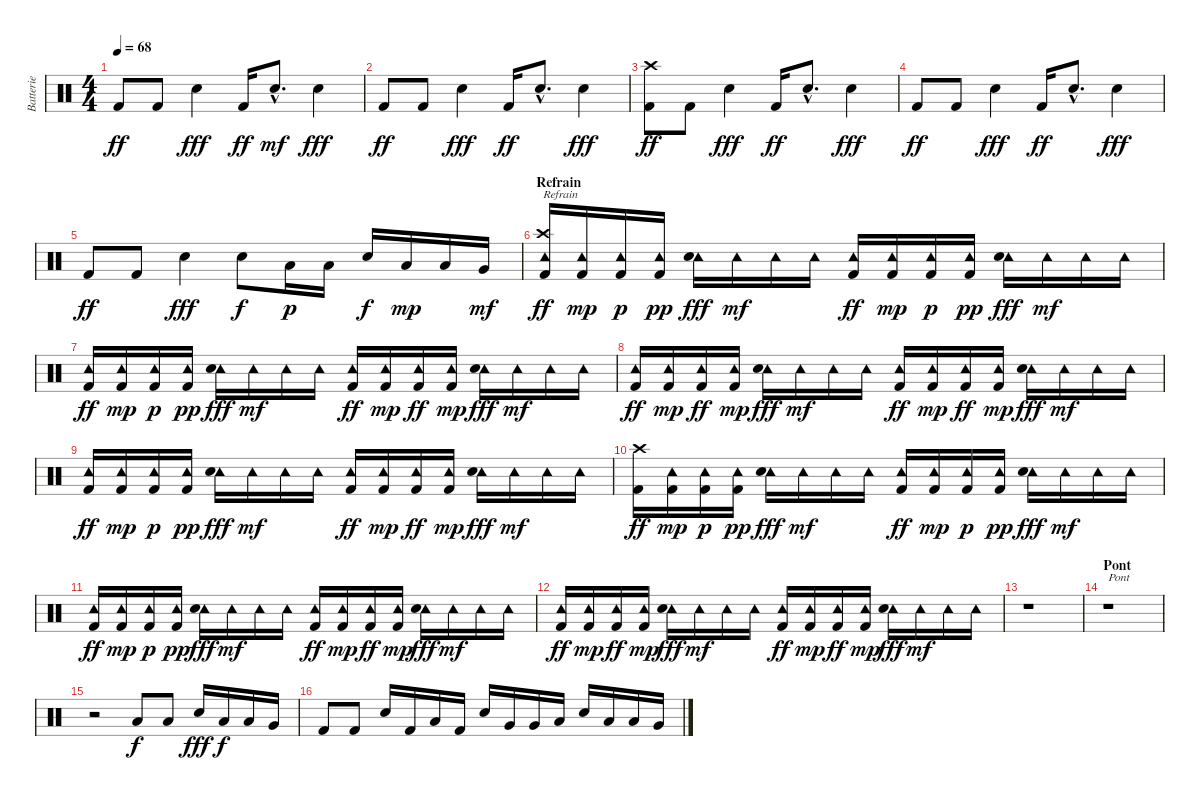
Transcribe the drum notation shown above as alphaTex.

\track ("Batterie" "Batterie") {instrument percussion}
\staff {score}
\articulation defaults
\ts (4 4)
\tempo 68
\clef neutral
\ks c "Kick (hit) 2".8{dy ff} "Kick (hit) 2".8 "Electric Snare (hit)".4{dy fff} "Kick (hit) 2".16{dy ff} "Electric Snare (hit)"{hac}.8{d dy mf} "Electric Snare (hit)".4{dy fff}
|
\section ("" "")
"Kick (hit) 2".8{txt "" dy ff} "Kick (hit) 2".8 "Electric Snare (hit)".4{dy fff} "Kick (hit) 2".16{dy ff} "Electric Snare (hit)"{hac}.8{d} "Electric Snare (hit)".4{dy fff} |
("Crash high (hit)" "Kick (hit) 2").8{dy ff} "Kick (hit) 2".8 "Electric Snare (hit)".4{dy fff} "Kick (hit) 2".16{dy ff} "Electric Snare (hit)"{hac}.8{d} "Electric Snare (hit)".4{dy fff} |
"Kick (hit) 2".8{dy ff} "Kick (hit) 2".8 "Electric Snare (hit)".4{dy fff} "Kick (hit) 2".16{dy ff} "Electric Snare (hit)"{hac}.8{d} "Electric Snare (hit)".4{dy fff} |
"Kick (hit) 2".8{dy ff} "Kick (hit) 2".8 "Electric Snare (hit)".4{dy fff} "Electric Snare (hit)".8{dy f} "Low Tom (hit)".16{dy p} "Low Tom (hit)".16 "Electric Snare (hit)".16{dy f} "Low Tom (hit)".16{dy mp} "Low Tom (hit)".16 "Very Low Tom (hit)".16{dy mf} |
\section ("" "Refrain")
("Crash high (hit)" "Tambourine (hit)" "Kick (hit) 2").16{txt "Refrain" dy ff} ("Tambourine (hit)" "Kick (hit) 2").16{dy mp} ("Tambourine (hit)" "Kick (hit) 2").16{dy p} ("Tambourine (hit)" "Kick (hit) 2").16{dy pp} ("Tambourine (hit)" "Electric Snare (hit)").16{dy fff} "Tambourine (hit)".16{dy mf} "Tambourine (hit)".16 "Tambourine (hit)".16 ("Tambourine (hit)" "Kick (hit) 2").16{dy ff} ("Tambourine (hit)" "Kick (hit) 2").16{dy mp} ("Tambourine (hit)" "Kick (hit) 2").16{dy p} ("Tambourine (hit)" "Kick (hit) 2").16{dy pp} ("Tambourine (hit)" "Electric Snare (hit)").16{dy fff} "Tambourine (hit)".16{dy mf} "Tambourine (hit)".16 "Tambourine (hit)".16 |
("Tambourine (hit)" "Kick (hit) 2").16{dy ff} ("Tambourine (hit)" "Kick (hit) 2").16{dy mp} ("Tambourine (hit)" "Kick (hit) 2").16{dy p} ("Tambourine (hit)" "Kick (hit) 2").16{dy pp} ("Tambourine (hit)" "Electric Snare (hit)").16{dy fff} "Tambourine (hit)".16{dy mf} "Tambourine (hit)".16 "Tambourine (hit)".16 ("Tambourine (hit)" "Kick (hit) 2").16{dy ff} ("Tambourine (hit)" "Kick (hit) 2").16{dy mp} ("Tambourine (hit)" "Kick (hit) 2").16{dy ff} ("Tambourine (hit)" "Kick (hit) 2").16{dy mp} ("Tambourine (hit)" "Electric Snare (hit)").16{dy fff} "Tambourine (hit)".16{dy mf} "Tambourine (hit)".16 "Tambourine (hit)".16 |
("Tambourine (hit)" "Kick (hit) 2").16{dy ff} ("Tambourine (hit)" "Kick (hit) 2").16{dy mp} ("Tambourine (hit)" "Kick (hit) 2").16{dy ff} ("Tambourine (hit)" "Kick (hit) 2").16{dy mp} ("Tambourine (hit)" "Electric Snare (hit)").16{dy fff} "Tambourine (hit)".16{dy mf} "Tambourine (hit)".16 "Tambourine (hit)".16 ("Tambourine (hit)" "Kick (hit) 2").16{dy ff} ("Tambourine (hit)" "Kick (hit) 2").16{dy mp} ("Tambourine (hit)" "Kick (hit) 2").16{dy ff} ("Tambourine (hit)" "Kick (hit) 2").16{dy mp} ("Tambourine (hit)" "Electric Snare (hit)").16{dy fff} "Tambourine (hit)".16{dy mf} "Tambourine (hit)".16 "Tambourine (hit)".16 |
("Tambourine (hit)" "Kick (hit) 2").16{dy ff} ("Tambourine (hit)" "Kick (hit) 2").16{dy mp} ("Tambourine (hit)" "Kick (hit) 2").16{dy p} ("Tambourine (hit)" "Kick (hit) 2").16{dy pp} ("Tambourine (hit)" "Electric Snare (hit)").16{dy fff} "Tambourine (hit)".16{dy mf} "Tambourine (hit)".16 "Tambourine (hit)".16 ("Tambourine (hit)" "Kick (hit) 2").16{dy ff} ("Tambourine (hit)" "Kick (hit) 2").16{dy mp} ("Tambourine (hit)" "Kick (hit) 2").16{dy ff} ("Tambourine (hit)" "Kick (hit) 2").16{dy mp} ("Tambourine (hit)" "Electric Snare (hit)").16{dy fff} "Tambourine (hit)".16{dy mf} "Tambourine (hit)".16 "Tambourine (hit)".16 |
("Crash high (hit)" "Kick (hit) 2").16{dy ff} ("Tambourine (hit)" "Kick (hit) 2").16{dy mp} ("Tambourine (hit)" "Kick (hit) 2").16{dy p} ("Tambourine (hit)" "Kick (hit) 2").16{dy pp} ("Tambourine (hit)" "Electric Snare (hit)").16{dy fff} "Tambourine (hit)".16{dy mf} "Tambourine (hit)".16 "Tambourine (hit)".16 ("Tambourine (hit)" "Kick (hit) 2").16{dy ff} ("Tambourine (hit)" "Kick (hit) 2").16{dy mp} ("Tambourine (hit)" "Kick (hit) 2").16{dy p} ("Tambourine (hit)" "Kick (hit) 2").16{dy pp} ("Tambourine (hit)" "Electric Snare (hit)").16{dy fff} "Tambourine (hit)".16{dy mf} "Tambourine (hit)".16 "Tambourine (hit)".16 |
("Tambourine (hit)" "Kick (hit) 2").16{dy ff} ("Tambourine (hit)" "Kick (hit) 2").16{dy mp} ("Tambourine (hit)" "Kick (hit) 2").16{dy p} ("Tambourine (hit)" "Kick (hit) 2").16{dy pp} ("Tambourine (hit)" "Electric Snare (hit)").16{dy fff} "Tambourine (hit)".16{dy mf} "Tambourine (hit)".16 "Tambourine (hit)".16 ("Tambourine (hit)" "Kick (hit) 2").16{dy ff} ("Tambourine (hit)" "Kick (hit) 2").16{dy mp} ("Tambourine (hit)" "Kick (hit) 2").16{dy ff} ("Tambourine (hit)" "Kick (hit) 2").16{dy mp} ("Tambourine (hit)" "Electric Snare (hit)").16{dy fff} "Tambourine (hit)".16{dy mf} "Tambourine (hit)".16 "Tambourine (hit)".16 |
("Tambourine (hit)" "Kick (hit) 2").16{dy ff} ("Tambourine (hit)" "Kick (hit) 2").16{dy mp} ("Tambourine (hit)" "Kick (hit) 2").16{dy ff} ("Tambourine (hit)" "Kick (hit) 2").16{dy mp} ("Tambourine (hit)" "Electric Snare (hit)").16{dy fff} "Tambourine (hit)".16{dy mf} "Tambourine (hit)".16 "Tambourine (hit)".16 ("Tambourine (hit)" "Kick (hit) 2").16{dy ff} ("Tambourine (hit)" "Kick (hit) 2").16{dy mp} ("Tambourine (hit)" "Kick (hit) 2").16{dy ff} ("Tambourine (hit)" "Kick (hit) 2").16{dy mp} ("Tambourine (hit)" "Electric Snare (hit)").16{dy fff} "Tambourine (hit)".16{dy mf} "Tambourine (hit)".16 "Tambourine (hit)".16 |
r.1 |
\section ("" "Pont")
r.1{txt "Pont"} |
r.2 "Low Tom (hit)".8{dy f} "Low Tom (hit)".8 "Electric Snare (hit)".16{dy fff} "Low Tom (hit)".16{dy f} "Low Tom (hit)".16 "Very Low Tom (hit)".16 |
"Kick (hit) 2".8 "Kick (hit) 2".8 "Electric Snare (hit)".16 "Kick (hit) 2".16 "Low Floor Tom (hit)".16 "Kick (hit) 2".16 "Electric Snare (hit)".16 "Very Low Tom (hit)".16 "Very Low Tom (hit)".16 "Low Floor Tom (hit)".16 "Electric Snare (hit)".16 "Low Floor Tom (hit)".16 "Low Floor Tom (hit)".16 "Very Low Tom (hit)".16
